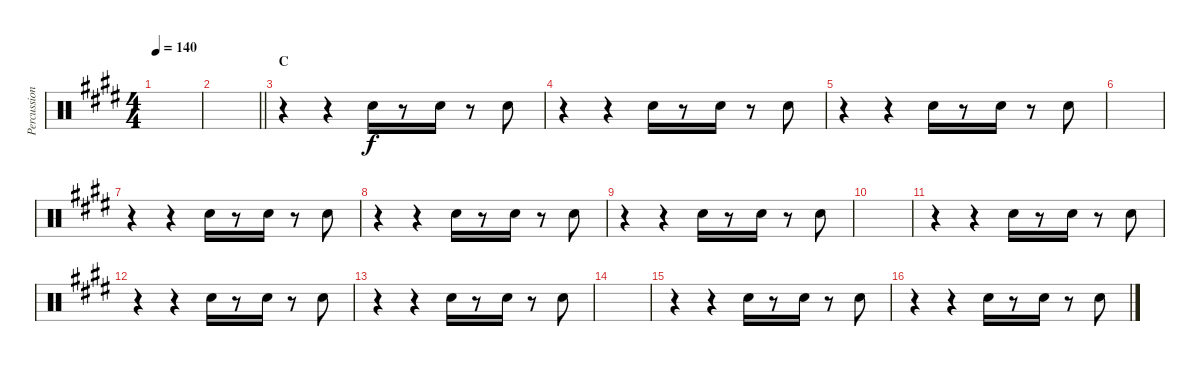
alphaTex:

\track ("Percussion" "Percussion") {instrument percussion}
\staff {score}
\articulation defaults
\ts (4 4)
\tempo 140
\clef neutral
\ks e
|
\barLineRight lightlight
|
\section ("" "C")
r.4 r.4 "Hand Clap (hit)".16 r.8 "Hand Clap (hit)".16 r.8 "Hand Clap (hit)".8 |
r.4 r.4 "Hand Clap (hit)".16 r.8 "Hand Clap (hit)".16 r.8 "Hand Clap (hit)".8 |
r.4 r.4 "Hand Clap (hit)".16 r.8 "Hand Clap (hit)".16 r.8 "Hand Clap (hit)".8 |
|
r.4 r.4 "Hand Clap (hit)".16 r.8 "Hand Clap (hit)".16 r.8 "Hand Clap (hit)".8 |
r.4 r.4 "Hand Clap (hit)".16 r.8 "Hand Clap (hit)".16 r.8 "Hand Clap (hit)".8 |
r.4 r.4 "Hand Clap (hit)".16 r.8 "Hand Clap (hit)".16 r.8 "Hand Clap (hit)".8 |
|
r.4 r.4 "Hand Clap (hit)".16 r.8 "Hand Clap (hit)".16 r.8 "Hand Clap (hit)".8 |
r.4 r.4 "Hand Clap (hit)".16 r.8 "Hand Clap (hit)".16 r.8 "Hand Clap (hit)".8 |
r.4 r.4 "Hand Clap (hit)".16 r.8 "Hand Clap (hit)".16 r.8 "Hand Clap (hit)".8 |
|
r.4 r.4 "Hand Clap (hit)".16 r.8 "Hand Clap (hit)".16 r.8 "Hand Clap (hit)".8 |
r.4 r.4 "Hand Clap (hit)".16 r.8 "Hand Clap (hit)".16 r.8 "Hand Clap (hit)".8
